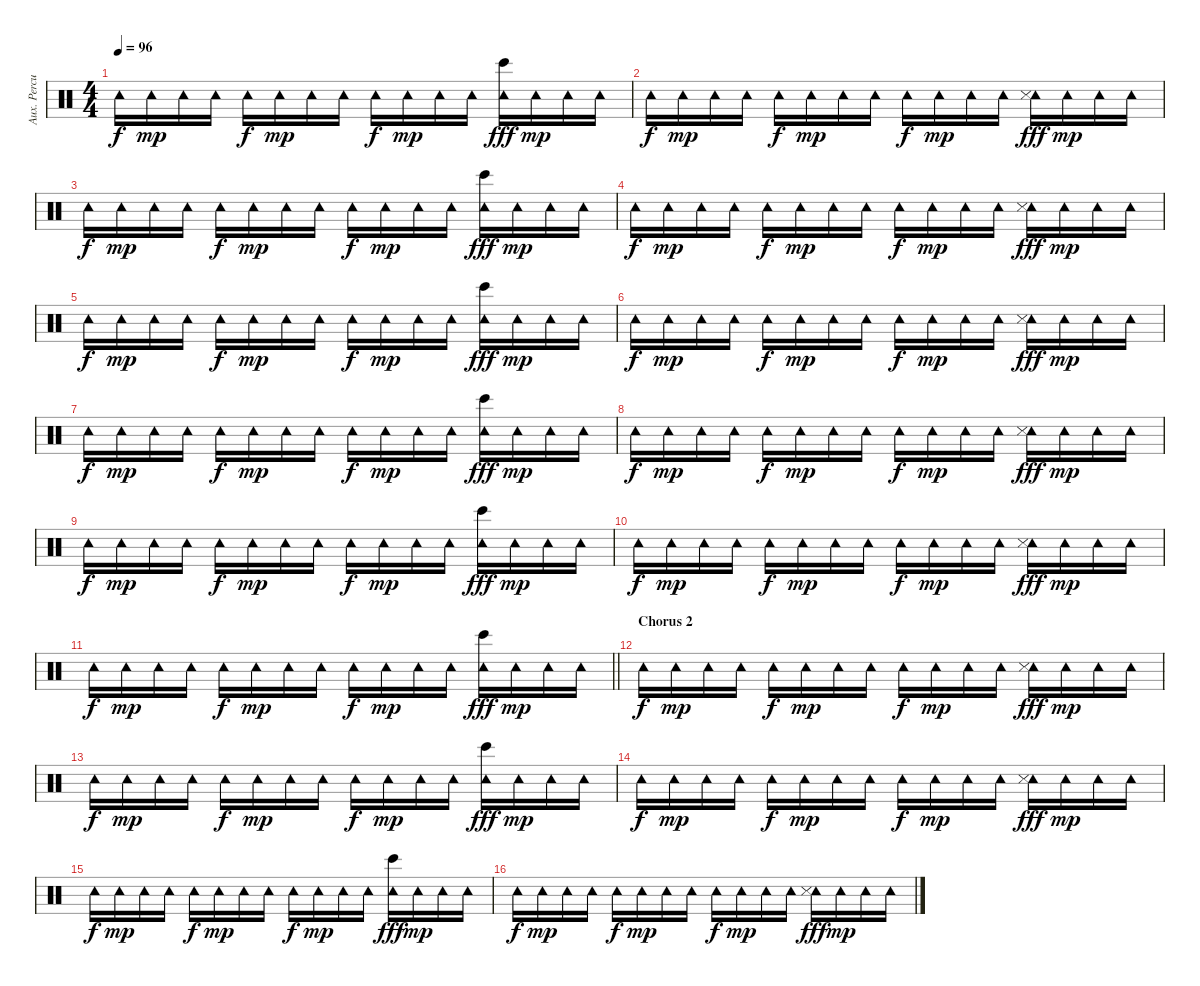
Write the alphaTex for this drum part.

\track ("Aux. Percussion" "Aux. Percu") {instrument percussion}
\staff {score}
\articulation defaults
\ts (4 4)
\tempo 96
\clef neutral
\ks c "Tambourine (hit)".16{dy f} "Tambourine (hit)".16{dy mp} "Tambourine (hit)".16 "Tambourine (hit)".16 "Tambourine (hit)".16{dy f} "Tambourine (hit)".16{dy mp} "Tambourine (hit)".16 "Tambourine (hit)".16 "Tambourine (hit)".16{dy f} "Tambourine (hit)".16{dy mp} "Tambourine (hit)".16 "Tambourine (hit)".16
("Tambourine (hit)" "Bongo High (hit)").16{dy fff} "Tambourine (hit)".16{dy mp} "Tambourine (hit)".16 "Tambourine (hit)".16 |
"Tambourine (hit)".16{dy f} "Tambourine (hit)".16{dy mp} "Tambourine (hit)".16 "Tambourine (hit)".16 "Tambourine (hit)".16{dy f} "Tambourine (hit)".16{dy mp} "Tambourine (hit)".16 "Tambourine (hit)".16 "Tambourine (hit)".16{dy f} "Tambourine (hit)".16{dy mp} "Tambourine (hit)".16 "Tambourine (hit)".16 ("Tambourine (hit)" "Snare (side stick) 3").16{dy fff} "Tambourine (hit)".16{dy mp} "Tambourine (hit)".16 "Tambourine (hit)".16 |
"Tambourine (hit)".16{dy f} "Tambourine (hit)".16{dy mp} "Tambourine (hit)".16 "Tambourine (hit)".16 "Tambourine (hit)".16{dy f} "Tambourine (hit)".16{dy mp} "Tambourine (hit)".16 "Tambourine (hit)".16 "Tambourine (hit)".16{dy f} "Tambourine (hit)".16{dy mp} "Tambourine (hit)".16 "Tambourine (hit)".16 ("Tambourine (hit)" "Bongo High (hit)").16{dy fff} "Tambourine (hit)".16{dy mp} "Tambourine (hit)".16 "Tambourine (hit)".16 |
"Tambourine (hit)".16{dy f} "Tambourine (hit)".16{dy mp} "Tambourine (hit)".16 "Tambourine (hit)".16 "Tambourine (hit)".16{dy f} "Tambourine (hit)".16{dy mp} "Tambourine (hit)".16 "Tambourine (hit)".16 "Tambourine (hit)".16{dy f} "Tambourine (hit)".16{dy mp} "Tambourine (hit)".16 "Tambourine (hit)".16 ("Tambourine (hit)" "Snare (side stick) 3").16{dy fff} "Tambourine (hit)".16{dy mp} "Tambourine (hit)".16 "Tambourine (hit)".16 |
"Tambourine (hit)".16{dy f} "Tambourine (hit)".16{dy mp} "Tambourine (hit)".16 "Tambourine (hit)".16 "Tambourine (hit)".16{dy f} "Tambourine (hit)".16{dy mp} "Tambourine (hit)".16 "Tambourine (hit)".16 "Tambourine (hit)".16{dy f} "Tambourine (hit)".16{dy mp} "Tambourine (hit)".16 "Tambourine (hit)".16 ("Tambourine (hit)" "Bongo High (hit)").16{dy fff} "Tambourine (hit)".16{dy mp} "Tambourine (hit)".16 "Tambourine (hit)".16 |
"Tambourine (hit)".16{dy f} "Tambourine (hit)".16{dy mp} "Tambourine (hit)".16 "Tambourine (hit)".16 "Tambourine (hit)".16{dy f} "Tambourine (hit)".16{dy mp} "Tambourine (hit)".16 "Tambourine (hit)".16 "Tambourine (hit)".16{dy f} "Tambourine (hit)".16{dy mp} "Tambourine (hit)".16 "Tambourine (hit)".16 ("Tambourine (hit)" "Snare (side stick) 3").16{dy fff} "Tambourine (hit)".16{dy mp} "Tambourine (hit)".16 "Tambourine (hit)".16 |
"Tambourine (hit)".16{dy f} "Tambourine (hit)".16{dy mp} "Tambourine (hit)".16 "Tambourine (hit)".16 "Tambourine (hit)".16{dy f} "Tambourine (hit)".16{dy mp} "Tambourine (hit)".16 "Tambourine (hit)".16 "Tambourine (hit)".16{dy f} "Tambourine (hit)".16{dy mp} "Tambourine (hit)".16 "Tambourine (hit)".16 ("Tambourine (hit)" "Bongo High (hit)").16{dy fff} "Tambourine (hit)".16{dy mp} "Tambourine (hit)".16 "Tambourine (hit)".16 |
"Tambourine (hit)".16{dy f} "Tambourine (hit)".16{dy mp} "Tambourine (hit)".16 "Tambourine (hit)".16 "Tambourine (hit)".16{dy f} "Tambourine (hit)".16{dy mp} "Tambourine (hit)".16 "Tambourine (hit)".16 "Tambourine (hit)".16{dy f} "Tambourine (hit)".16{dy mp} "Tambourine (hit)".16 "Tambourine (hit)".16 ("Tambourine (hit)" "Snare (side stick) 3").16{dy fff} "Tambourine (hit)".16{dy mp} "Tambourine (hit)".16 "Tambourine (hit)".16 |
"Tambourine (hit)".16{dy f} "Tambourine (hit)".16{dy mp} "Tambourine (hit)".16 "Tambourine (hit)".16 "Tambourine (hit)".16{dy f} "Tambourine (hit)".16{dy mp} "Tambourine (hit)".16 "Tambourine (hit)".16 "Tambourine (hit)".16{dy f} "Tambourine (hit)".16{dy mp} "Tambourine (hit)".16 "Tambourine (hit)".16 ("Tambourine (hit)" "Bongo High (hit)").16{dy fff} "Tambourine (hit)".16{dy mp} "Tambourine (hit)".16 "Tambourine (hit)".16 |
"Tambourine (hit)".16{dy f} "Tambourine (hit)".16{dy mp} "Tambourine (hit)".16 "Tambourine (hit)".16 "Tambourine (hit)".16{dy f} "Tambourine (hit)".16{dy mp} "Tambourine (hit)".16 "Tambourine (hit)".16 "Tambourine (hit)".16{dy f} "Tambourine (hit)".16{dy mp} "Tambourine (hit)".16 "Tambourine (hit)".16 ("Tambourine (hit)" "Snare (side stick) 3").16{dy fff} "Tambourine (hit)".16{dy mp} "Tambourine (hit)".16 "Tambourine (hit)".16 |
\barLineRight lightlight "Tambourine (hit)".16{dy f} "Tambourine (hit)".16{dy mp} "Tambourine (hit)".16 "Tambourine (hit)".16 "Tambourine (hit)".16{dy f} "Tambourine (hit)".16{dy mp} "Tambourine (hit)".16 "Tambourine (hit)".16 "Tambourine (hit)".16{dy f} "Tambourine (hit)".16{dy mp} "Tambourine (hit)".16 "Tambourine (hit)".16
("Tambourine (hit)" "Bongo High (hit)").16{dy fff} "Tambourine (hit)".16{dy mp} "Tambourine (hit)".16 "Tambourine (hit)".16 |
\section ("" "Chorus 2")
"Tambourine (hit)".16{dy f} "Tambourine (hit)".16{dy mp} "Tambourine (hit)".16 "Tambourine (hit)".16 "Tambourine (hit)".16{dy f} "Tambourine (hit)".16{dy mp} "Tambourine (hit)".16 "Tambourine (hit)".16 "Tambourine (hit)".16{dy f} "Tambourine (hit)".16{dy mp} "Tambourine (hit)".16 "Tambourine (hit)".16 ("Tambourine (hit)" "Snare (side stick) 3").16{dy fff} "Tambourine (hit)".16{dy mp} "Tambourine (hit)".16 "Tambourine (hit)".16 |
"Tambourine (hit)".16{dy f} "Tambourine (hit)".16{dy mp} "Tambourine (hit)".16 "Tambourine (hit)".16 "Tambourine (hit)".16{dy f} "Tambourine (hit)".16{dy mp} "Tambourine (hit)".16 "Tambourine (hit)".16 "Tambourine (hit)".16{dy f} "Tambourine (hit)".16{dy mp} "Tambourine (hit)".16 "Tambourine (hit)".16 ("Tambourine (hit)" "Bongo High (hit)").16{dy fff} "Tambourine (hit)".16{dy mp} "Tambourine (hit)".16 "Tambourine (hit)".16 |
"Tambourine (hit)".16{dy f} "Tambourine (hit)".16{dy mp} "Tambourine (hit)".16 "Tambourine (hit)".16 "Tambourine (hit)".16{dy f} "Tambourine (hit)".16{dy mp} "Tambourine (hit)".16 "Tambourine (hit)".16 "Tambourine (hit)".16{dy f} "Tambourine (hit)".16{dy mp} "Tambourine (hit)".16 "Tambourine (hit)".16 ("Tambourine (hit)" "Snare (side stick) 3").16{dy fff} "Tambourine (hit)".16{dy mp} "Tambourine (hit)".16 "Tambourine (hit)".16 |
"Tambourine (hit)".16{dy f} "Tambourine (hit)".16{dy mp} "Tambourine (hit)".16 "Tambourine (hit)".16 "Tambourine (hit)".16{dy f} "Tambourine (hit)".16{dy mp} "Tambourine (hit)".16 "Tambourine (hit)".16 "Tambourine (hit)".16{dy f} "Tambourine (hit)".16{dy mp} "Tambourine (hit)".16 "Tambourine (hit)".16 ("Tambourine (hit)" "Bongo High (hit)").16{dy fff} "Tambourine (hit)".16{dy mp} "Tambourine (hit)".16 "Tambourine (hit)".16 |
"Tambourine (hit)".16{dy f} "Tambourine (hit)".16{dy mp} "Tambourine (hit)".16 "Tambourine (hit)".16 "Tambourine (hit)".16{dy f} "Tambourine (hit)".16{dy mp} "Tambourine (hit)".16 "Tambourine (hit)".16 "Tambourine (hit)".16{dy f} "Tambourine (hit)".16{dy mp} "Tambourine (hit)".16 "Tambourine (hit)".16 ("Tambourine (hit)" "Snare (side stick) 3").16{dy fff} "Tambourine (hit)".16{dy mp} "Tambourine (hit)".16 "Tambourine (hit)".16
